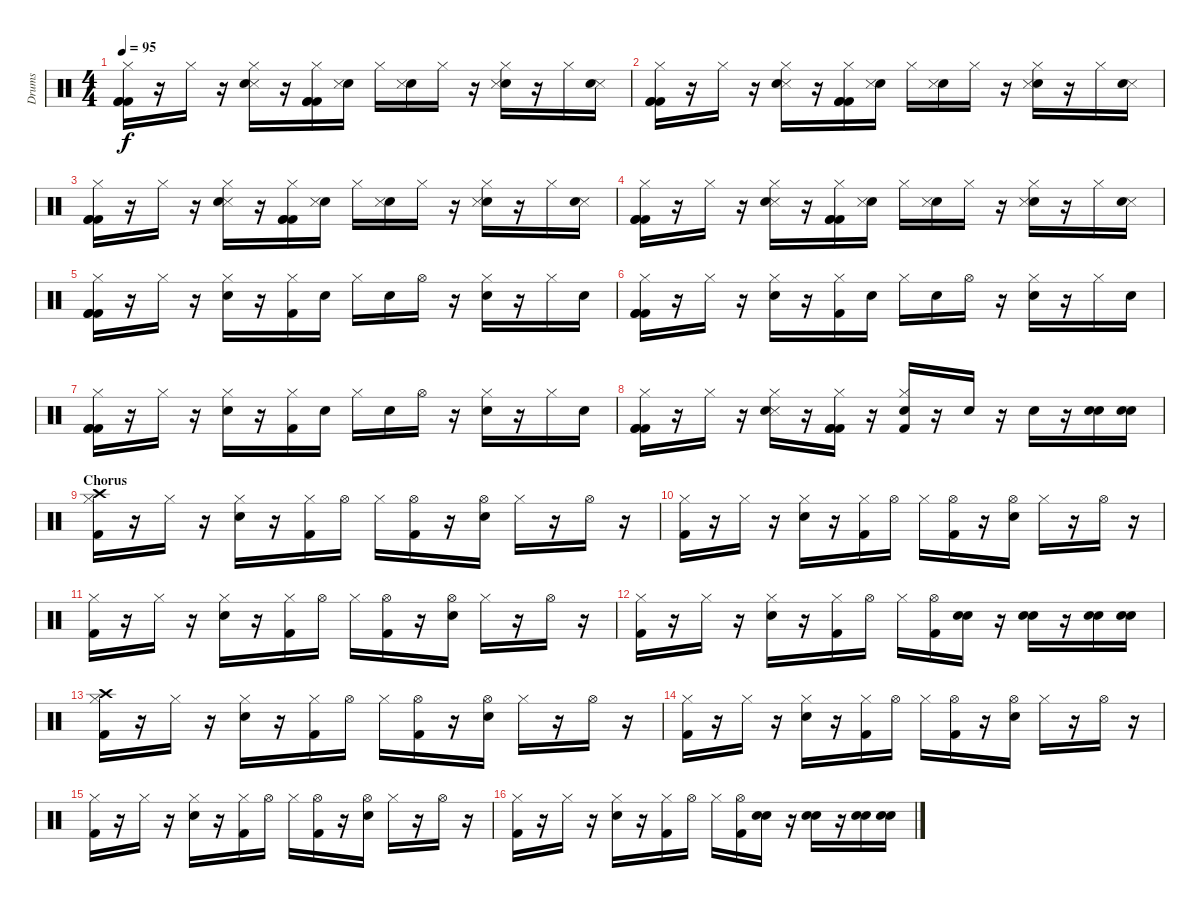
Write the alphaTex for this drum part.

\track ("Drums" "Drums") {instrument percussion}
\staff {score}
\articulation defaults
\ts (4 4)
\tempo 95
\clef neutral
\ks c
("Kick (hit) 2" "Hi-Hat (closed)" "Kick (hit) 2" "Kick (hit) 2").16{dy f} r.16 "Hi-Hat (closed)".16 r.16 ("Hi-Hat (closed)" "Snare (side stick) 3" "Electric Snare (hit)").16 r.16 ("Kick (hit) 2" "Kick (hit) 2" "Kick (hit) 2" "Hi-Hat (closed)").16 ("Electric Snare (hit)" "Snare (side stick) 3").16 "Hi-Hat (closed)".16 ("Electric Snare (hit)" "Snare (side stick) 3").16 "Hi-Hat (closed)".16 r.16 ("Hi-Hat (closed)" "Electric Snare (hit)" "Snare (side stick) 3").16 r.16 "Hi-Hat (closed)".16 ("Snare (side stick) 3" "Electric Snare (hit)").16 |
("Kick (hit) 2" "Hi-Hat (closed)" "Kick (hit) 2" "Kick (hit) 2").16 r.16 "Hi-Hat (closed)".16 r.16 ("Hi-Hat (closed)" "Snare (side stick) 3" "Electric Snare (hit)").16 r.16 ("Kick (hit) 2" "Kick (hit) 2" "Kick (hit) 2" "Hi-Hat (closed)").16 ("Electric Snare (hit)" "Snare (side stick) 3").16 "Hi-Hat (closed)".16 ("Electric Snare (hit)" "Snare (side stick) 3").16 "Hi-Hat (closed)".16 r.16 ("Hi-Hat (closed)" "Electric Snare (hit)" "Snare (side stick) 3").16 r.16 "Hi-Hat (closed)".16 ("Snare (side stick) 3" "Electric Snare (hit)").16 |
("Kick (hit) 2" "Hi-Hat (closed)" "Kick (hit) 2" "Kick (hit) 2").16 r.16 "Hi-Hat (closed)".16 r.16 ("Hi-Hat (closed)" "Snare (side stick) 3" "Electric Snare (hit)").16 r.16 ("Kick (hit) 2" "Kick (hit) 2" "Kick (hit) 2" "Hi-Hat (closed)").16 ("Electric Snare (hit)" "Snare (side stick) 3").16 "Hi-Hat (closed)".16 ("Electric Snare (hit)" "Snare (side stick) 3").16 "Hi-Hat (closed)".16 r.16 ("Hi-Hat (closed)" "Electric Snare (hit)" "Snare (side stick) 3").16 r.16 "Hi-Hat (closed)".16 ("Snare (side stick) 3" "Electric Snare (hit)").16 |
("Kick (hit) 2" "Hi-Hat (closed)" "Kick (hit) 2" "Kick (hit) 2").16 r.16 "Hi-Hat (closed)".16 r.16 ("Hi-Hat (closed)" "Snare (side stick) 3" "Electric Snare (hit)").16 r.16 ("Kick (hit) 2" "Kick (hit) 2" "Kick (hit) 2" "Hi-Hat (closed)").16 ("Electric Snare (hit)" "Snare (side stick) 3").16 "Hi-Hat (closed)".16 ("Electric Snare (hit)" "Snare (side stick) 3").16 "Hi-Hat (closed)".16 r.16 ("Hi-Hat (closed)" "Electric Snare (hit)" "Snare (side stick) 3").16 r.16 "Hi-Hat (closed)".16 ("Snare (side stick) 3" "Electric Snare (hit)").16 |
("Kick (hit) 2" "Hi-Hat (closed)" "Kick (hit) 2" "Kick (hit) 2").16 r.16 "Hi-Hat (closed)".16 r.16 ("Electric Snare (hit)" "Hi-Hat (closed)").16 r.16 ("Hi-Hat (closed)" "Kick (hit) 2").16 "Electric Snare (hit)".16 "Hi-Hat (closed)".16 "Electric Snare (hit)".16 "Hi-Hat (open)".16 r.16 ("Electric Snare (hit)" "Hi-Hat (closed)").16 r.16 "Hi-Hat (closed)".16 "Electric Snare (hit)".16 |
("Kick (hit) 2" "Hi-Hat (closed)" "Kick (hit) 2" "Kick (hit) 2").16 r.16 "Hi-Hat (closed)".16 r.16 ("Electric Snare (hit)" "Hi-Hat (closed)").16 r.16 ("Hi-Hat (closed)" "Kick (hit) 2").16 "Electric Snare (hit)".16 "Hi-Hat (closed)".16 "Electric Snare (hit)".16 "Hi-Hat (open)".16 r.16 ("Electric Snare (hit)" "Hi-Hat (closed)").16 r.16 "Hi-Hat (closed)".16 "Electric Snare (hit)".16 |
("Kick (hit) 2" "Hi-Hat (closed)" "Kick (hit) 2" "Kick (hit) 2").16 r.16 "Hi-Hat (closed)".16 r.16 ("Electric Snare (hit)" "Hi-Hat (closed)").16 r.16 ("Hi-Hat (closed)" "Kick (hit) 2").16 "Electric Snare (hit)".16 "Hi-Hat (closed)".16 "Electric Snare (hit)".16 "Hi-Hat (open)".16 r.16 ("Electric Snare (hit)" "Hi-Hat (closed)").16 r.16 "Hi-Hat (closed)".16 "Electric Snare (hit)".16 |
("Kick (hit) 2" "Hi-Hat (closed)" "Kick (hit) 2" "Kick (hit) 2").16 r.16 "Hi-Hat (closed)".16 r.16 ("Hi-Hat (closed)" "Snare (side stick) 3" "Electric Snare (hit)").16 r.16 ("Kick (hit) 2" "Kick (hit) 2" "Kick (hit) 2" "Hi-Hat (closed)").16 r.16 ("Hi-Hat (closed)" "Electric Snare (hit)" "Kick (hit) 2").16 r.16 "Electric Snare (hit)".16 r.16 "Electric Snare (hit)".16 r.16 ("Electric Snare (hit)" "Electric Snare (hit)").16 ("Electric Snare (hit)" "Electric Snare (hit)").16 |
\section ("" "Chorus")
("Crash high (hit)" "Hi-Hat (closed)" "Kick (hit) 2").16 r.16 "Hi-Hat (closed)".16 r.16 ("Hi-Hat (closed)" "Snare (hit) 2").16 r.16 ("Hi-Hat (closed)" "Kick (hit) 2").16 "Hi-Hat (open)".16 "Hi-Hat (closed)".16 ("Hi-Hat (open)" "Kick (hit) 2").16 r.16 ("Hi-Hat (open)" "Snare (hit) 2").16 "Hi-Hat (closed)".16 r.16 "Hi-Hat (open)".16 r.16 |
("Hi-Hat (closed)" "Kick (hit) 2").16 r.16 "Hi-Hat (closed)".16 r.16 ("Hi-Hat (closed)" "Snare (hit) 2").16 r.16 ("Hi-Hat (closed)" "Kick (hit) 2").16 "Hi-Hat (open)".16 "Hi-Hat (closed)".16 ("Hi-Hat (open)" "Kick (hit) 2").16 r.16 ("Hi-Hat (open)" "Snare (hit) 2").16 "Hi-Hat (closed)".16 r.16 "Hi-Hat (open)".16 r.16 |
("Hi-Hat (closed)" "Kick (hit) 2").16 r.16 "Hi-Hat (closed)".16 r.16 ("Hi-Hat (closed)" "Snare (hit) 2").16 r.16 ("Hi-Hat (closed)" "Kick (hit) 2").16 "Hi-Hat (open)".16 "Hi-Hat (closed)".16 ("Hi-Hat (open)" "Kick (hit) 2").16 r.16 ("Hi-Hat (open)" "Snare (hit) 2").16 "Hi-Hat (closed)".16 r.16 "Hi-Hat (open)".16 r.16 |
("Hi-Hat (closed)" "Kick (hit) 2").16 r.16 "Hi-Hat (closed)".16 r.16 ("Hi-Hat (closed)" "Snare (hit) 2").16 r.16 ("Hi-Hat (closed)" "Kick (hit) 2").16 "Hi-Hat (open)".16 "Hi-Hat (closed)".16 ("Hi-Hat (open)" "Kick (hit) 2").16 ("Snare (hit) 2" "Snare (hit) 2").16 r.16 ("Snare (hit) 2" "Snare (hit) 2").16 r.16 ("Snare (hit) 2" "Snare (hit) 2").16 ("Snare (hit) 2" "Snare (hit) 2").16 |
("Crash high (hit)" "Hi-Hat (closed)" "Kick (hit) 2").16 r.16 "Hi-Hat (closed)".16 r.16 ("Hi-Hat (closed)" "Snare (hit) 2").16 r.16 ("Hi-Hat (closed)" "Kick (hit) 2").16 "Hi-Hat (open)".16 "Hi-Hat (closed)".16 ("Hi-Hat (open)" "Kick (hit) 2").16 r.16 ("Hi-Hat (open)" "Snare (hit) 2").16 "Hi-Hat (closed)".16 r.16 "Hi-Hat (open)".16 r.16 |
("Hi-Hat (closed)" "Kick (hit) 2").16 r.16 "Hi-Hat (closed)".16 r.16 ("Hi-Hat (closed)" "Snare (hit) 2").16 r.16 ("Hi-Hat (closed)" "Kick (hit) 2").16 "Hi-Hat (open)".16 "Hi-Hat (closed)".16 ("Hi-Hat (open)" "Kick (hit) 2").16 r.16 ("Hi-Hat (open)" "Snare (hit) 2").16 "Hi-Hat (closed)".16 r.16 "Hi-Hat (open)".16 r.16 |
("Hi-Hat (closed)" "Kick (hit) 2").16 r.16 "Hi-Hat (closed)".16 r.16 ("Hi-Hat (closed)" "Snare (hit) 2").16 r.16 ("Hi-Hat (closed)" "Kick (hit) 2").16 "Hi-Hat (open)".16 "Hi-Hat (closed)".16 ("Hi-Hat (open)" "Kick (hit) 2").16 r.16 ("Hi-Hat (open)" "Snare (hit) 2").16 "Hi-Hat (closed)".16 r.16 "Hi-Hat (open)".16 r.16 |
("Hi-Hat (closed)" "Kick (hit) 2").16 r.16 "Hi-Hat (closed)".16 r.16 ("Hi-Hat (closed)" "Snare (hit) 2").16 r.16 ("Hi-Hat (closed)" "Kick (hit) 2").16 "Hi-Hat (open)".16 "Hi-Hat (closed)".16 ("Hi-Hat (open)" "Kick (hit) 2").16 ("Snare (hit) 2" "Snare (hit) 2").16 r.16 ("Snare (hit) 2" "Snare (hit) 2").16 r.16 ("Snare (hit) 2" "Snare (hit) 2").16 ("Snare (hit) 2" "Snare (hit) 2").16
